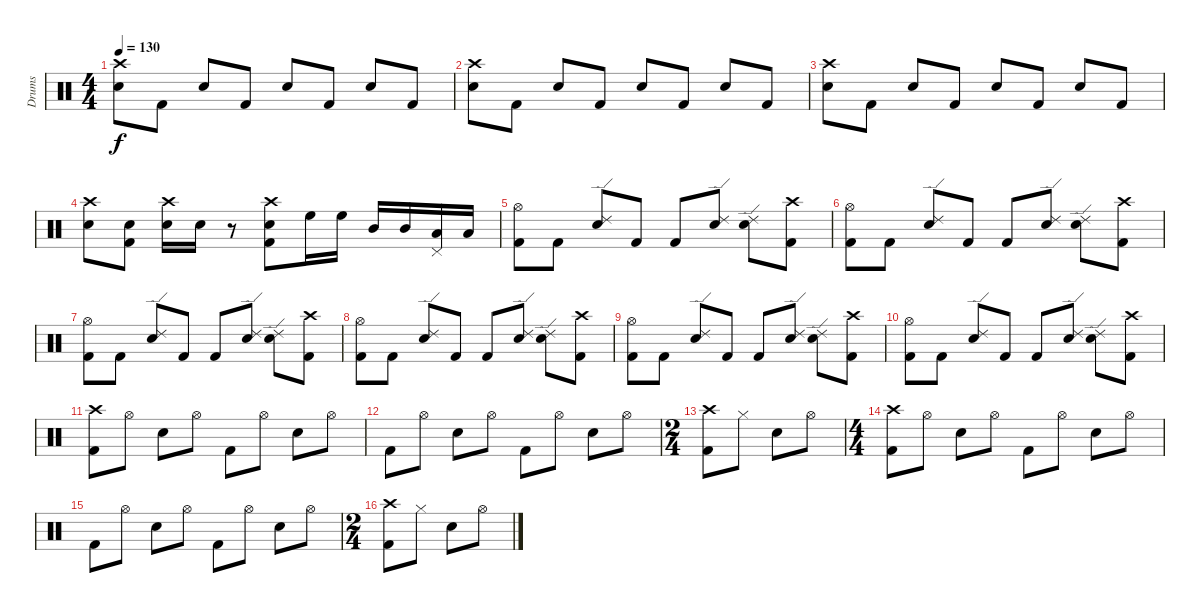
\track ("Drums" "Drums") {instrument percussion}
\staff {score}
\articulation defaults
\ts (4 4)
\tempo 130
\clef neutral
\ks c
("Crash high (hit)" "Electric Snare (hit)").8{dy f} "Kick (hit) 2".8 "Electric Snare (hit)".8 "Kick (hit) 2".8 "Electric Snare (hit)".8 "Kick (hit) 2".8 "Electric Snare (hit)".8 "Kick (hit) 2".8 |
("Crash high (hit)" "Electric Snare (hit)").8 "Kick (hit) 2".8 "Electric Snare (hit)".8 "Kick (hit) 2".8 "Electric Snare (hit)".8 "Kick (hit) 2".8 "Electric Snare (hit)".8 "Kick (hit) 2".8 |
("Crash high (hit)" "Electric Snare (hit)").8 "Kick (hit) 2".8 "Electric Snare (hit)".8 "Kick (hit) 2".8 "Electric Snare (hit)".8 "Kick (hit) 2".8 "Electric Snare (hit)".8 "Kick (hit) 2".8 |
("Crash high (hit)" "Electric Snare (hit)").8 ("Electric Snare (hit)" "Kick (hit) 2").8 ("Crash high (hit)" "Electric Snare (hit)").16 "Electric Snare (hit)".16 r.8 ("Crash high (hit)" "Electric Snare (hit)" "Kick (hit) 2").8 "High Floor Tom (hit)".16 "High Floor Tom (hit)".16 "Mid Tom (hit)".16 "Mid Tom (hit)".16 ("Low Tom (hit)" "Pedal Hi-Hat (hit)").16 "Low Tom (hit)".16 |
("Hi-Hat (open)" "Kick (hit) 2").8 "Kick (hit) 2".8 ("Ride (edge) 2" "Electric Snare (hit)").8 "Kick (hit) 2".8 "Kick (hit) 2".8 ("Ride (edge) 2" "Electric Snare (hit)").8 ("Ride (edge) 2" "Electric Snare (hit)").8 ("Crash high (hit)" "Kick (hit) 2").8 |
("Hi-Hat (open)" "Kick (hit) 2").8 "Kick (hit) 2".8 ("Ride (edge) 2" "Electric Snare (hit)").8 "Kick (hit) 2".8 "Kick (hit) 2".8 ("Ride (edge) 2" "Electric Snare (hit)").8 ("Ride (edge) 2" "Electric Snare (hit)").8 ("Crash high (hit)" "Kick (hit) 2").8 |
("Hi-Hat (open)" "Kick (hit) 2").8 "Kick (hit) 2".8 ("Ride (edge) 2" "Electric Snare (hit)").8 "Kick (hit) 2".8 "Kick (hit) 2".8 ("Ride (edge) 2" "Electric Snare (hit)").8 ("Ride (edge) 2" "Electric Snare (hit)").8 ("Crash high (hit)" "Kick (hit) 2").8 |
("Hi-Hat (open)" "Kick (hit) 2").8 "Kick (hit) 2".8 ("Ride (edge) 2" "Electric Snare (hit)").8 "Kick (hit) 2".8 "Kick (hit) 2".8 ("Ride (edge) 2" "Electric Snare (hit)").8 ("Ride (edge) 2" "Electric Snare (hit)").8 ("Crash high (hit)" "Kick (hit) 2").8 |
("Hi-Hat (open)" "Kick (hit) 2").8 "Kick (hit) 2".8 ("Ride (edge) 2" "Electric Snare (hit)").8 "Kick (hit) 2".8 "Kick (hit) 2".8 ("Ride (edge) 2" "Electric Snare (hit)").8 ("Ride (edge) 2" "Electric Snare (hit)").8 ("Crash high (hit)" "Kick (hit) 2").8 |
("Hi-Hat (open)" "Kick (hit) 2").8 "Kick (hit) 2".8 ("Ride (edge) 2" "Electric Snare (hit)").8 "Kick (hit) 2".8 "Kick (hit) 2".8 ("Ride (edge) 2" "Electric Snare (hit)").8 ("Ride (edge) 2" "Electric Snare (hit)").8 ("Crash high (hit)" "Kick (hit) 2").8 |
("Crash high (hit)" "Kick (hit) 2").8 "Hi-Hat (open)".8 "Electric Snare (hit)".8 "Hi-Hat (open)".8 "Kick (hit) 2".8 "Hi-Hat (open)".8 "Electric Snare (hit)".8 "Hi-Hat (open)".8 |
"Kick (hit) 2".8 "Hi-Hat (open)".8 "Electric Snare (hit)".8 "Hi-Hat (open)".8 "Kick (hit) 2".8 "Hi-Hat (open)".8 "Electric Snare (hit)".8 "Hi-Hat (open)".8 |
\ts (2 4)
("Crash high (hit)" "Kick (hit) 2").8 "Hi-Hat (closed)".8 "Electric Snare (hit)".8 "Hi-Hat (open)".8 |
\ts (4 4)
("Crash high (hit)" "Kick (hit) 2").8 "Hi-Hat (open)".8 "Electric Snare (hit)".8 "Hi-Hat (open)".8 "Kick (hit) 2".8 "Hi-Hat (open)".8 "Electric Snare (hit)".8 "Hi-Hat (open)".8 |
"Kick (hit) 2".8 "Hi-Hat (open)".8 "Electric Snare (hit)".8 "Hi-Hat (open)".8 "Kick (hit) 2".8 "Hi-Hat (open)".8 "Electric Snare (hit)".8 "Hi-Hat (open)".8 |
\ts (2 4)
("Crash high (hit)" "Kick (hit) 2").8 "Hi-Hat (closed)".8 "Electric Snare (hit)".8 "Hi-Hat (open)".8
